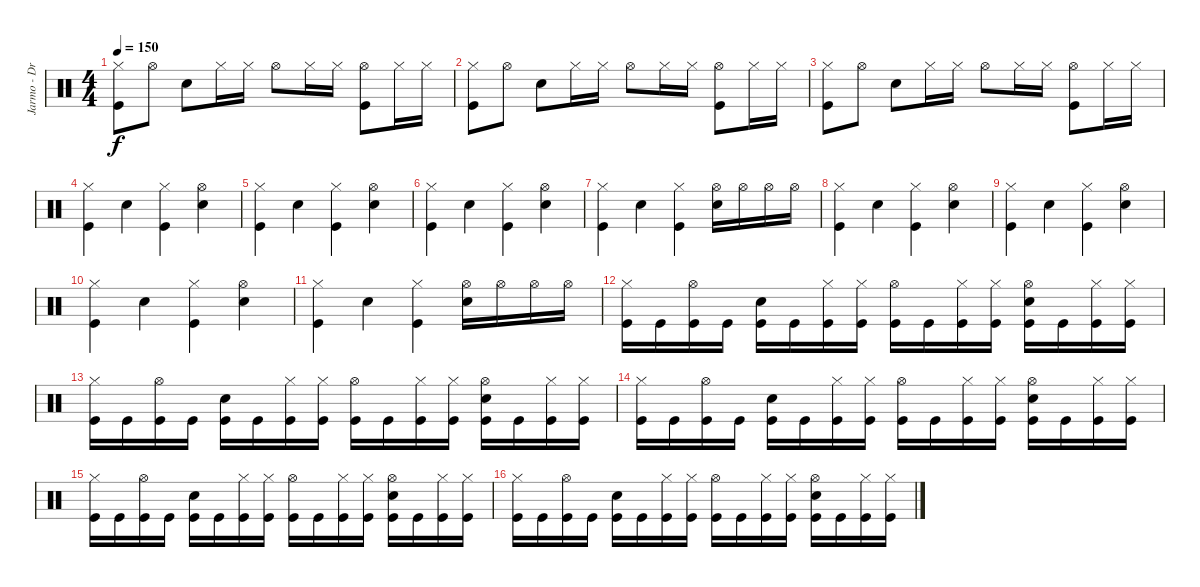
\track ("Jarmo - Drums/Vodka" "Jarmo - Dr") {instrument percussion}
\staff {score}
\articulation defaults
\ts (4 4)
\tempo 150
\clef neutral
\ks c
("Kick (hit)" "Hi-Hat (closed)").8{dy f} "Hi-Hat (open)".8 "Electric Snare (hit)".8 "Hi-Hat (closed)".16 "Hi-Hat (closed)".16 "Hi-Hat (open)".8 "Hi-Hat (closed)".16 "Hi-Hat (closed)".16 ("Kick (hit)" "Hi-Hat (open)").8 "Hi-Hat (closed)".16 "Hi-Hat (closed)".16 |
("Kick (hit)" "Hi-Hat (closed)").8 "Hi-Hat (open)".8 "Electric Snare (hit)".8 "Hi-Hat (closed)".16 "Hi-Hat (closed)".16 "Hi-Hat (open)".8 "Hi-Hat (closed)".16 "Hi-Hat (closed)".16 ("Kick (hit)" "Hi-Hat (open)").8 "Hi-Hat (closed)".16 "Hi-Hat (closed)".16 |
("Kick (hit)" "Hi-Hat (closed)").8 "Hi-Hat (open)".8 "Electric Snare (hit)".8 "Hi-Hat (closed)".16 "Hi-Hat (closed)".16 "Hi-Hat (open)".8 "Hi-Hat (closed)".16 "Hi-Hat (closed)".16 ("Kick (hit)" "Hi-Hat (open)").8 "Hi-Hat (closed)".16 "Hi-Hat (closed)".16 |
("Kick (hit)" "Hi-Hat (closed)").4 "Electric Snare (hit)".4 ("Kick (hit)" "Hi-Hat (closed)").4 ("Electric Snare (hit)" "Hi-Hat (open)").4 |
("Kick (hit)" "Hi-Hat (closed)").4 "Electric Snare (hit)".4 ("Kick (hit)" "Hi-Hat (closed)").4 ("Electric Snare (hit)" "Hi-Hat (open)").4 |
("Kick (hit)" "Hi-Hat (closed)").4 "Electric Snare (hit)".4 ("Kick (hit)" "Hi-Hat (closed)").4 ("Electric Snare (hit)" "Hi-Hat (open)").4 |
("Kick (hit)" "Hi-Hat (closed)").4 "Electric Snare (hit)".4 ("Kick (hit)" "Hi-Hat (closed)").4 ("Electric Snare (hit)" "Hi-Hat (open)").16 "Hi-Hat (open)".16 "Hi-Hat (open)".16 "Hi-Hat (open)".16 |
("Kick (hit)" "Hi-Hat (closed)").4 "Electric Snare (hit)".4 ("Kick (hit)" "Hi-Hat (closed)").4 ("Electric Snare (hit)" "Hi-Hat (open)").4 |
("Kick (hit)" "Hi-Hat (closed)").4 "Electric Snare (hit)".4 ("Kick (hit)" "Hi-Hat (closed)").4 ("Electric Snare (hit)" "Hi-Hat (open)").4 |
("Kick (hit)" "Hi-Hat (closed)").4 "Electric Snare (hit)".4 ("Kick (hit)" "Hi-Hat (closed)").4 ("Electric Snare (hit)" "Hi-Hat (open)").4 |
("Kick (hit)" "Hi-Hat (closed)").4 "Electric Snare (hit)".4 ("Kick (hit)" "Hi-Hat (closed)").4 ("Electric Snare (hit)" "Hi-Hat (open)").16 "Hi-Hat (open)".16 "Hi-Hat (open)".16 "Hi-Hat (open)".16 |
("Kick (hit)" "Hi-Hat (closed)").16 "Kick (hit)".16 ("Kick (hit)" "Hi-Hat (open)").16 "Kick (hit)".16 ("Kick (hit)" "Electric Snare (hit)").16 "Kick (hit)".16 ("Kick (hit)" "Hi-Hat (closed)").16 ("Kick (hit)" "Hi-Hat (closed)").16 ("Kick (hit)" "Hi-Hat (open)").16 "Kick (hit)".16 ("Kick (hit)" "Hi-Hat (closed)").16 ("Kick (hit)" "Hi-Hat (closed)").16 ("Kick (hit)" "Electric Snare (hit)" "Hi-Hat (open)").16 "Kick (hit)".16 ("Kick (hit)" "Hi-Hat (closed)").16 ("Kick (hit)" "Hi-Hat (closed)").16 |
("Kick (hit)" "Hi-Hat (closed)").16 "Kick (hit)".16 ("Kick (hit)" "Hi-Hat (open)").16 "Kick (hit)".16 ("Kick (hit)" "Electric Snare (hit)").16 "Kick (hit)".16 ("Kick (hit)" "Hi-Hat (closed)").16 ("Kick (hit)" "Hi-Hat (closed)").16 ("Kick (hit)" "Hi-Hat (open)").16 "Kick (hit)".16 ("Kick (hit)" "Hi-Hat (closed)").16 ("Kick (hit)" "Hi-Hat (closed)").16 ("Kick (hit)" "Electric Snare (hit)" "Hi-Hat (open)").16 "Kick (hit)".16 ("Kick (hit)" "Hi-Hat (closed)").16 ("Kick (hit)" "Hi-Hat (closed)").16 |
("Kick (hit)" "Hi-Hat (closed)").16 "Kick (hit)".16 ("Kick (hit)" "Hi-Hat (open)").16 "Kick (hit)".16 ("Kick (hit)" "Electric Snare (hit)").16 "Kick (hit)".16 ("Kick (hit)" "Hi-Hat (closed)").16 ("Kick (hit)" "Hi-Hat (closed)").16 ("Kick (hit)" "Hi-Hat (open)").16 "Kick (hit)".16 ("Kick (hit)" "Hi-Hat (closed)").16 ("Kick (hit)" "Hi-Hat (closed)").16 ("Kick (hit)" "Electric Snare (hit)" "Hi-Hat (open)").16 "Kick (hit)".16 ("Kick (hit)" "Hi-Hat (closed)").16 ("Kick (hit)" "Hi-Hat (closed)").16 |
("Kick (hit)" "Hi-Hat (closed)").16 "Kick (hit)".16 ("Kick (hit)" "Hi-Hat (open)").16 "Kick (hit)".16 ("Kick (hit)" "Electric Snare (hit)").16 "Kick (hit)".16 ("Kick (hit)" "Hi-Hat (closed)").16 ("Kick (hit)" "Hi-Hat (closed)").16 ("Kick (hit)" "Hi-Hat (open)").16 "Kick (hit)".16 ("Kick (hit)" "Hi-Hat (closed)").16 ("Kick (hit)" "Hi-Hat (closed)").16 ("Kick (hit)" "Electric Snare (hit)" "Hi-Hat (open)").16 "Kick (hit)".16 ("Kick (hit)" "Hi-Hat (closed)").16 ("Kick (hit)" "Hi-Hat (closed)").16 |
("Kick (hit)" "Hi-Hat (closed)").16 "Kick (hit)".16 ("Kick (hit)" "Hi-Hat (open)").16 "Kick (hit)".16 ("Kick (hit)" "Electric Snare (hit)").16 "Kick (hit)".16 ("Kick (hit)" "Hi-Hat (closed)").16 ("Kick (hit)" "Hi-Hat (closed)").16 ("Kick (hit)" "Hi-Hat (open)").16 "Kick (hit)".16 ("Kick (hit)" "Hi-Hat (closed)").16 ("Kick (hit)" "Hi-Hat (closed)").16 ("Kick (hit)" "Electric Snare (hit)" "Hi-Hat (open)").16 "Kick (hit)".16 ("Kick (hit)" "Hi-Hat (closed)").16 ("Kick (hit)" "Hi-Hat (closed)").16
